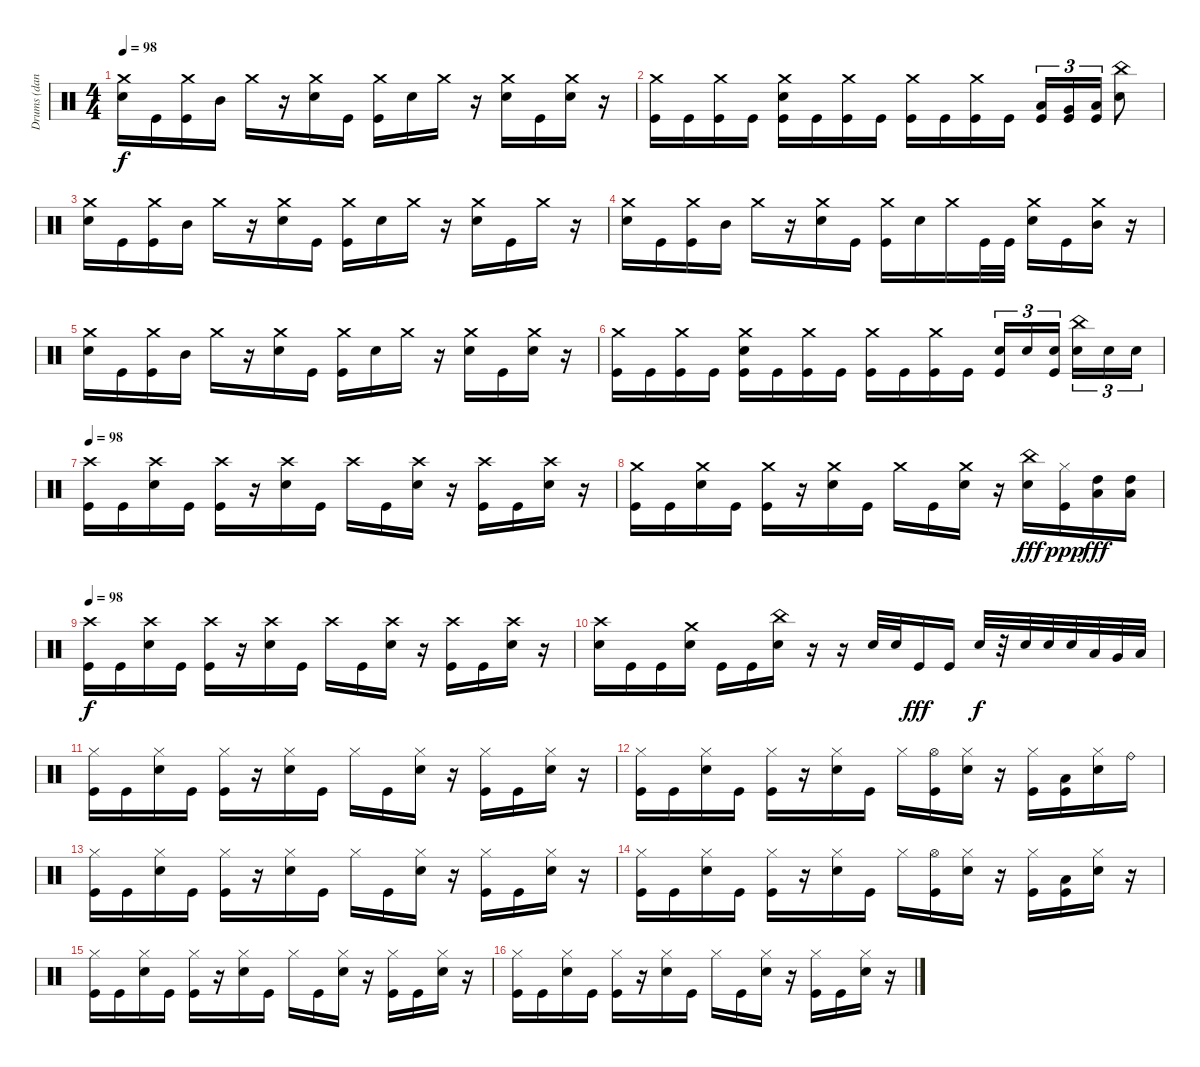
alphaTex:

\track ("Drums (dan)" "Drums (dan") {instrument percussion}
\staff {score}
\articulation defaults
\ts (4 4)
\tempo 98
\clef neutral
\ks c
("Crash medium (hit)" "Snare (hit) 2").16{dy f} "Kick (hit)".16 ("Crash medium (hit)" "Kick (hit)").16 "Mid Tom (hit)".16 "Crash medium (hit)".16 r.16 ("Crash medium (hit)" "Snare (hit) 2").16 "Kick (hit)".16 ("Crash medium (hit)" "Kick (hit)").16 "Snare (hit) 2".16 "Crash medium (hit)".16 r.16 ("Crash medium (hit)" "Snare (hit) 2").16 "Kick (hit)".16 ("Crash medium (hit)" "Snare (hit) 2").16 r.16 |
("Crash medium (hit)" "Kick (hit)").16 "Kick (hit)".16 ("Crash medium (hit)" "Kick (hit)").16 "Kick (hit)".16 ("Crash medium (hit)" "Snare (hit) 2" "Kick (hit)").16 "Kick (hit)".16 ("Crash medium (hit)" "Kick (hit)").16 "Kick (hit)".16 ("Crash medium (hit)" "Kick (hit)").16 "Kick (hit)".16 ("Crash medium (hit)" "Kick (hit)").16 "Kick (hit)".16 ("Low Tom (hit)" "Kick (hit)").16{tu (3 2)} ("Very Low Tom (hit)" "Kick (hit)").16{tu (3 2)} ("Low Floor Tom (hit)" "Kick (hit)").16{tu (3 2)} ("China (hit)" "Snare (hit) 2").8 |
("Crash medium (hit)" "Snare (hit) 2").16 "Kick (hit)".16 ("Crash medium (hit)" "Kick (hit)").16 "Mid Tom (hit)".16 "Crash medium (hit)".16 r.16 ("Crash medium (hit)" "Snare (hit) 2").16 "Kick (hit)".16 ("Crash medium (hit)" "Kick (hit)").16 "Snare (hit) 2".16 "Crash medium (hit)".16 r.16 ("Crash medium (hit)" "Snare (hit) 2").16 "Kick (hit)".16 "Crash medium (hit)".16 r.16 |
("Crash medium (hit)" "Snare (hit) 2").16 "Kick (hit)".16 ("Crash medium (hit)" "Kick (hit)").16 "Mid Tom (hit)".16 "Crash medium (hit)".16 r.16 ("Crash medium (hit)" "Snare (hit) 2").16 "Kick (hit)".16 ("Crash medium (hit)" "Kick (hit)").16 "Snare (hit) 2".16 "Crash medium (hit)".16 "Kick (hit)".32 "Kick (hit)".32 ("Crash medium (hit)" "Snare (hit) 2").16 "Kick (hit)".16 ("Crash medium (hit)" "Mid Tom (hit)").16 r.16 |
("Crash medium (hit)" "Snare (hit) 2").16 "Kick (hit)".16 ("Crash medium (hit)" "Kick (hit)").16 "Mid Tom (hit)".16 "Crash medium (hit)".16 r.16 ("Crash medium (hit)" "Snare (hit) 2").16 "Kick (hit)".16 ("Crash medium (hit)" "Kick (hit)").16 "Snare (hit) 2".16 "Crash medium (hit)".16 r.16 ("Crash medium (hit)" "Snare (hit) 2").16 "Kick (hit)".16 ("Crash medium (hit)" "Snare (hit) 2").16 r.16 |
("Crash medium (hit)" "Kick (hit)").16 "Kick (hit)".16 ("Crash medium (hit)" "Kick (hit)").16 "Kick (hit)".16 ("Crash medium (hit)" "Snare (hit) 2" "Kick (hit)").16 "Kick (hit)".16 ("Crash medium (hit)" "Kick (hit)").16 "Kick (hit)".16 ("Crash medium (hit)" "Kick (hit)").16 "Kick (hit)".16 ("Crash medium (hit)" "Kick (hit)").16 "Kick (hit)".16 ("Snare (hit) 2" "Kick (hit)").16{tu (3 2)} "Snare (hit) 2".16{tu (3 2)} ("Snare (hit) 2" "Kick (hit)").16{tu (3 2)} ("China (hit)" "Snare (hit) 2").16{tu (3 2)} "Snare (hit) 2".16{tu (3 2)} "Snare (hit) 2".16{tu (3 2)} |
\tempo 98
("Crash high (hit)" "Kick (hit)").16 "Kick (hit)".16 ("Crash high (hit)" "Snare (hit) 2").16 "Kick (hit)".16 ("Crash high (hit)" "Kick (hit)").16 r.16 ("Crash high (hit)" "Snare (hit) 2").16 "Kick (hit)".16 "Crash high (hit)".16 "Kick (hit)".16 ("Crash high (hit)" "Snare (hit) 2").16 r.16 ("Crash high (hit)" "Kick (hit)").16 "Kick (hit)".16 ("Crash high (hit)" "Snare (hit) 2").16 r.16 |
("Crash medium (hit)" "Kick (hit)").16 "Kick (hit)".16 ("Crash medium (hit)" "Snare (hit) 2").16 "Kick (hit)".16 ("Crash medium (hit)" "Kick (hit)").16 r.16 ("Crash medium (hit)" "Snare (hit) 2").16 "Kick (hit)".16 "Crash medium (hit)".16 "Kick (hit)".16 ("Crash medium (hit)" "Snare (hit) 2").16 r.16 ("China (hit)" "Snare (hit) 2").16{dy fff} ("Hi-Hat (closed)" "Kick (hit)").16{dy ppp} ("High Tom (hit)" "Low Floor Tom (hit)").16{dy fff} ("High Tom (hit)" "Low Floor Tom (hit)").16 |
\tempo 98
("Crash high (hit)" "Kick (hit)").16{dy f} "Kick (hit)".16 ("Crash high (hit)" "Snare (hit) 2").16 "Kick (hit)".16 ("Crash high (hit)" "Kick (hit)").16 r.16 ("Crash high (hit)" "Snare (hit) 2").16 "Kick (hit)".16 "Crash high (hit)".16 "Kick (hit)".16 ("Crash high (hit)" "Snare (hit) 2").16 r.16 ("Crash high (hit)" "Kick (hit)").16 "Kick (hit)".16 ("Crash high (hit)" "Snare (hit) 2").16 r.16 |
("Crash high (hit)" "Snare (hit) 2").16 "Kick (hit)".16 "Kick (hit)".16 ("Crash medium (hit)" "Snare (hit) 2").16 "Kick (hit)".16 "Kick (hit)".16 ("China (hit)" "Snare (hit) 2").16 r.16 r.16 "Snare (hit) 2".32 "Snare (hit) 2".32 "Kick (hit)".16{dy fff} "Kick (hit)".16 "Snare (hit) 2".32{dy f} r.32 "Snare (hit) 2".32 "Snare (hit) 2".32 "Snare (hit) 2".32 "Low Tom (hit)".32 "Very Low Tom (hit)".32 "Low Floor Tom (hit)".32 |
("Hi-Hat (closed)" "Kick (hit)").16 "Kick (hit)".16 ("Hi-Hat (closed)" "Snare (hit) 2").16 "Kick (hit)".16 ("Hi-Hat (closed)" "Kick (hit)").16 r.16 ("Hi-Hat (closed)" "Snare (hit) 2").16 "Kick (hit)".16 "Hi-Hat (closed)".16 "Kick (hit)".16 ("Hi-Hat (closed)" "Snare (hit) 2").16 r.16 ("Hi-Hat (closed)" "Kick (hit)").16 "Kick (hit)".16 ("Hi-Hat (closed)" "Snare (hit) 2").16 r.16 |
("Hi-Hat (closed)" "Kick (hit)").16 "Kick (hit)".16 ("Hi-Hat (closed)" "Snare (hit) 2").16 "Kick (hit)".16 ("Hi-Hat (closed)" "Kick (hit)").16 r.16 ("Hi-Hat (closed)" "Snare (hit) 2").16 "Kick (hit)".16 "Hi-Hat (closed)".16 ("Hi-Hat (open)" "Kick (hit)").16 ("Hi-Hat (closed)" "Snare (hit) 2").16 r.16 ("Hi-Hat (closed)" "Kick (hit)").16 ("Low Tom (hit)" "Kick (hit)").16 ("Hi-Hat (closed)" "Snare (hit) 2").16 "Ride (bell)".16 |
("Hi-Hat (closed)" "Kick (hit)").16 "Kick (hit)".16 ("Hi-Hat (closed)" "Snare (hit) 2").16 "Kick (hit)".16 ("Hi-Hat (closed)" "Kick (hit)").16 r.16 ("Hi-Hat (closed)" "Snare (hit) 2").16 "Kick (hit)".16 "Hi-Hat (closed)".16 "Kick (hit)".16 ("Hi-Hat (closed)" "Snare (hit) 2").16 r.16 ("Hi-Hat (closed)" "Kick (hit)").16 "Kick (hit)".16 ("Hi-Hat (closed)" "Snare (hit) 2").16 r.16 |
("Hi-Hat (closed)" "Kick (hit)").16 "Kick (hit)".16 ("Hi-Hat (closed)" "Snare (hit) 2").16 "Kick (hit)".16 ("Hi-Hat (closed)" "Kick (hit)").16 r.16 ("Hi-Hat (closed)" "Snare (hit) 2").16 "Kick (hit)".16 "Hi-Hat (closed)".16 ("Hi-Hat (open)" "Kick (hit)").16 ("Hi-Hat (closed)" "Snare (hit) 2").16 r.16 ("Hi-Hat (closed)" "Kick (hit)").16 ("Low Tom (hit)" "Kick (hit)").16 ("Hi-Hat (closed)" "Snare (hit) 2").16 r.16 |
("Hi-Hat (closed)" "Kick (hit)").16 "Kick (hit)".16 ("Hi-Hat (closed)" "Snare (hit) 2").16 "Kick (hit)".16 ("Hi-Hat (closed)" "Kick (hit)").16 r.16 ("Hi-Hat (closed)" "Snare (hit) 2").16 "Kick (hit)".16 "Hi-Hat (closed)".16 "Kick (hit)".16 ("Hi-Hat (closed)" "Snare (hit) 2").16 r.16 ("Hi-Hat (closed)" "Kick (hit)").16 "Kick (hit)".16 ("Hi-Hat (closed)" "Snare (hit) 2").16 r.16 |
("Hi-Hat (closed)" "Kick (hit)").16 "Kick (hit)".16 ("Hi-Hat (closed)" "Snare (hit) 2").16 "Kick (hit)".16 ("Hi-Hat (closed)" "Kick (hit)").16 r.16 ("Hi-Hat (closed)" "Snare (hit) 2").16 "Kick (hit)".16 "Hi-Hat (closed)".16 "Kick (hit)".16 ("Hi-Hat (closed)" "Snare (hit) 2").16 r.16 ("Hi-Hat (closed)" "Kick (hit)").16 "Kick (hit)".16 ("Hi-Hat (closed)" "Snare (hit) 2").16 r.16
